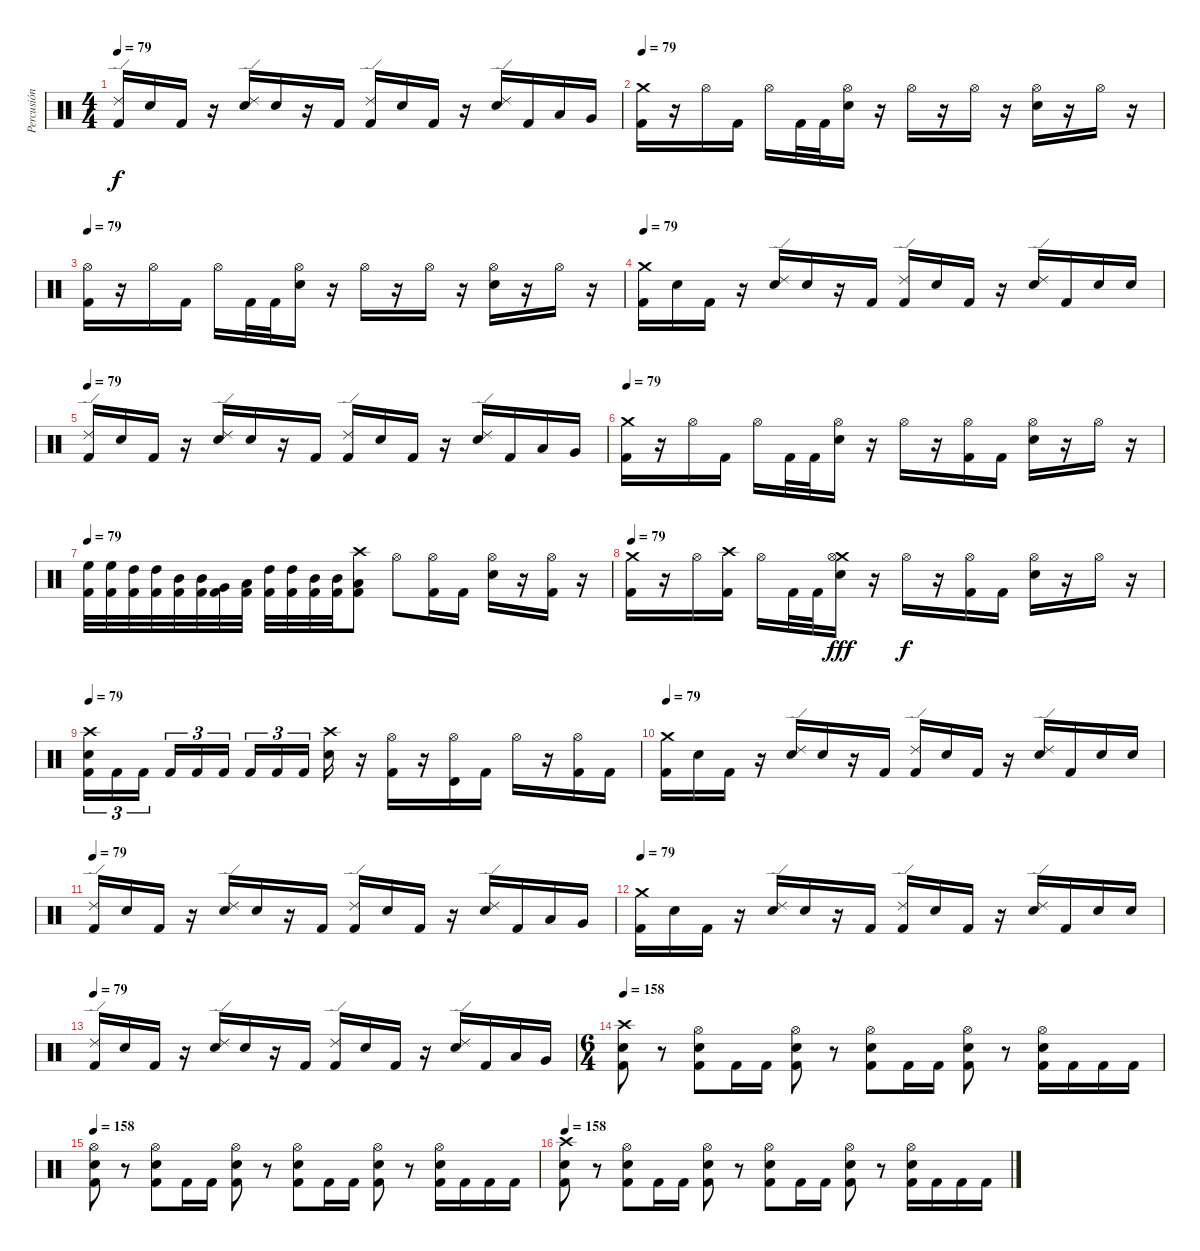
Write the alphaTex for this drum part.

\track ("Percusión" "Percusión") {instrument percussion}
\staff {score}
\articulation defaults
\ts (4 4)
\tempo 79
\clef neutral
\ks c
("Ride (edge) 2" "Kick (hit) 2").16{dy f} "Electric Snare (hit)".16 "Kick (hit) 2".16 r.16 ("Ride (edge) 2" "Electric Snare (hit)").16 "Electric Snare (hit)".16 r.16 "Kick (hit) 2".16 ("Ride (edge) 2" "Kick (hit) 2").16 "Electric Snare (hit)".16 "Kick (hit) 2".16 r.16 ("Ride (edge) 2" "Electric Snare (hit)").16 "Kick (hit) 2".16 "Low Tom (hit)".16 "Very Low Tom (hit)".16 |
\tempo 79
("Crash medium (hit)" "Kick (hit) 2").16 r.16 "Hi-Hat (open)".16 "Kick (hit) 2".16 "Hi-Hat (open)".16 "Kick (hit) 2".32 "Kick (hit) 2".32 ("Hi-Hat (open)" "Electric Snare (hit)").16 r.16 "Hi-Hat (open)".16 r.16 "Hi-Hat (open)".16 r.16 ("Hi-Hat (open)" "Electric Snare (hit)").16 r.16 "Hi-Hat (open)".16 r.16 |
\tempo 79
("Hi-Hat (open)" "Kick (hit) 2").16 r.16 "Hi-Hat (open)".16 "Kick (hit) 2".16 "Hi-Hat (open)".16 "Kick (hit) 2".32 "Kick (hit) 2".32 ("Hi-Hat (open)" "Electric Snare (hit)").16 r.16 "Hi-Hat (open)".16 r.16 "Hi-Hat (open)".16 r.16 ("Hi-Hat (open)" "Electric Snare (hit)").16 r.16 "Hi-Hat (open)".16 r.16 |
\tempo 79
("Crash medium (hit)" "Kick (hit) 2").16 "Electric Snare (hit)".16 "Kick (hit) 2".16 r.16 ("Ride (edge) 2" "Electric Snare (hit)").16 "Electric Snare (hit)".16 r.16 "Kick (hit) 2".16 ("Ride (edge) 2" "Kick (hit) 2").16 "Electric Snare (hit)".16 "Kick (hit) 2".16 r.16 ("Ride (edge) 2" "Electric Snare (hit)").16 "Kick (hit) 2".16 "Electric Snare (hit)".16 "Electric Snare (hit)".16 |
\tempo 79
("Ride (edge) 2" "Kick (hit) 2").16 "Electric Snare (hit)".16 "Kick (hit) 2".16 r.16 ("Ride (edge) 2" "Electric Snare (hit)").16 "Electric Snare (hit)".16 r.16 "Kick (hit) 2".16 ("Ride (edge) 2" "Kick (hit) 2").16 "Electric Snare (hit)".16 "Kick (hit) 2".16 r.16 ("Ride (edge) 2" "Electric Snare (hit)").16 "Kick (hit) 2".16 "Low Tom (hit)".16 "Very Low Tom (hit)".16 |
\tempo 79
("Crash medium (hit)" "Kick (hit) 2").16 r.16 "Hi-Hat (open)".16 "Kick (hit) 2".16 "Hi-Hat (open)".16 "Kick (hit) 2".32 "Kick (hit) 2".32 ("Hi-Hat (open)" "Electric Snare (hit)").16 r.16 "Hi-Hat (open)".16 r.16 ("Hi-Hat (open)" "Kick (hit) 2").16 "Kick (hit) 2".16 ("Hi-Hat (open)" "Electric Snare (hit)").16 r.16 "Hi-Hat (open)".16 r.16 |
\tempo 79
("High Floor Tom (hit)" "Kick (hit) 2").32 ("High Floor Tom (hit)" "Kick (hit) 2").32 ("High Tom (hit)" "Kick (hit) 2").32 ("High Tom (hit)" "Kick (hit) 2").32 ("Mid Tom (hit)" "Kick (hit) 2").32 ("Mid Tom (hit)" "Kick (hit) 2").32 ("Very Low Tom (hit)" "Kick (hit) 2").32 ("Low Tom (hit)" "Kick (hit) 2").32 ("High Tom (hit)" "Kick (hit) 2").32 ("High Tom (hit)" "Kick (hit) 2").32 ("Mid Tom (hit)" "Kick (hit) 2").32 ("Mid Tom (hit)" "Kick (hit) 2").32 ("Crash high (hit)" "Low Tom (hit)" "Kick (hit) 2").8 "Hi-Hat (open)".8 ("Hi-Hat (open)" "Kick (hit) 2").16 "Kick (hit) 2".16 ("Hi-Hat (open)" "Electric Snare (hit)").16 r.16 ("Hi-Hat (open)" "Kick (hit) 2").16 r.16 |
\tempo 79
("Crash medium (hit)" "Kick (hit) 2").16 r.16 "Hi-Hat (open)".16 ("Crash high (hit)" "Kick (hit) 2").16 "Hi-Hat (open)".16 "Kick (hit) 2".32 "Kick (hit) 2".32 ("Crash medium (hit)" "Hi-Hat (open)" "Electric Snare (hit)").16{dy fff} r.16 "Hi-Hat (open)".16{dy f} r.16 ("Hi-Hat (open)" "Kick (hit) 2").16 "Kick (hit) 2".16 ("Hi-Hat (open)" "Electric Snare (hit)").16 r.16 "Hi-Hat (open)".16 r.16 |
\tempo 79
("Crash high (hit)" "Electric Snare (hit)" "Kick (hit) 2").16{tu (3 2)} "Kick (hit) 2".16{tu (3 2)} "Kick (hit) 2".16{tu (3 2)} "Kick (hit) 2".16{tu (3 2)} "Kick (hit) 2".16{tu (3 2)} "Kick (hit) 2".16{tu (3 2)} "Kick (hit) 2".16{tu (3 2)} "Kick (hit) 2".16{tu (3 2)} "Kick (hit) 2".16{tu (3 2)} ("Crash high (hit)" "Electric Snare (hit)").16 r.16 ("Hi-Hat (open)" "Kick (hit) 2").16 r.16 ("Timbale high (hit)" "Hi-Hat (open)").16 "Kick (hit) 2".16 "Hi-Hat (open)".16 r.16 ("Hi-Hat (open)" "Kick (hit) 2").16 "Kick (hit) 2".16 |
\tempo 79
("Crash medium (hit)" "Kick (hit) 2").16 "Electric Snare (hit)".16 "Kick (hit) 2".16 r.16 ("Ride (edge) 2" "Electric Snare (hit)").16 "Electric Snare (hit)".16 r.16 "Kick (hit) 2".16 ("Ride (edge) 2" "Kick (hit) 2").16 "Electric Snare (hit)".16 "Kick (hit) 2".16 r.16 ("Ride (edge) 2" "Electric Snare (hit)").16 "Kick (hit) 2".16 "Electric Snare (hit)".16 "Electric Snare (hit)".16 |
\tempo 79
("Ride (edge) 2" "Kick (hit) 2").16 "Electric Snare (hit)".16 "Kick (hit) 2".16 r.16 ("Ride (edge) 2" "Electric Snare (hit)").16 "Electric Snare (hit)".16 r.16 "Kick (hit) 2".16 ("Ride (edge) 2" "Kick (hit) 2").16 "Electric Snare (hit)".16 "Kick (hit) 2".16 r.16 ("Ride (edge) 2" "Electric Snare (hit)").16 "Kick (hit) 2".16 "Low Tom (hit)".16 "Very Low Tom (hit)".16 |
\tempo 79
("Crash medium (hit)" "Kick (hit) 2").16 "Electric Snare (hit)".16 "Kick (hit) 2".16 r.16 ("Ride (edge) 2" "Electric Snare (hit)").16 "Electric Snare (hit)".16 r.16 "Kick (hit) 2".16 ("Ride (edge) 2" "Kick (hit) 2").16 "Electric Snare (hit)".16 "Kick (hit) 2".16 r.16 ("Ride (edge) 2" "Electric Snare (hit)").16 "Kick (hit) 2".16 "Electric Snare (hit)".16 "Electric Snare (hit)".16 |
\tempo 79
("Ride (edge) 2" "Kick (hit) 2").16 "Electric Snare (hit)".16 "Kick (hit) 2".16 r.16 ("Ride (edge) 2" "Electric Snare (hit)").16 "Electric Snare (hit)".16 r.16 "Kick (hit) 2".16 ("Ride (edge) 2" "Kick (hit) 2").16 "Electric Snare (hit)".16 "Kick (hit) 2".16 r.16 ("Ride (edge) 2" "Electric Snare (hit)").16 "Kick (hit) 2".16 "Low Tom (hit)".16 "Very Low Tom (hit)".16 |
\ts (6 4)
\tempo 158
("Crash high (hit)" "Electric Snare (hit)" "Kick (hit) 2").8 r.8 ("Hi-Hat (open)" "Electric Snare (hit)" "Kick (hit) 2").8 "Kick (hit) 2".16 "Kick (hit) 2".16 ("Hi-Hat (open)" "Electric Snare (hit)" "Kick (hit) 2").8 r.8 ("Hi-Hat (open)" "Electric Snare (hit)" "Kick (hit) 2").8 "Kick (hit) 2".16 "Kick (hit) 2".16 ("Hi-Hat (open)" "Electric Snare (hit)" "Kick (hit) 2").8 r.8 ("Hi-Hat (open)" "Electric Snare (hit)" "Kick (hit) 2").16 "Kick (hit) 2".16 "Kick (hit) 2".16 "Kick (hit) 2".16 |
\tempo 158
("Hi-Hat (open)" "Electric Snare (hit)" "Kick (hit) 2").8 r.8 ("Hi-Hat (open)" "Electric Snare (hit)" "Kick (hit) 2").8 "Kick (hit) 2".16 "Kick (hit) 2".16 ("Hi-Hat (open)" "Electric Snare (hit)" "Kick (hit) 2").8 r.8 ("Hi-Hat (open)" "Electric Snare (hit)" "Kick (hit) 2").8 "Kick (hit) 2".16 "Kick (hit) 2".16 ("Hi-Hat (open)" "Electric Snare (hit)" "Kick (hit) 2").8 r.8 ("Hi-Hat (open)" "Electric Snare (hit)" "Kick (hit) 2").16 "Kick (hit) 2".16 "Kick (hit) 2".16 "Kick (hit) 2".16 |
\tempo 158
("Crash high (hit)" "Electric Snare (hit)" "Kick (hit) 2").8 r.8 ("Hi-Hat (open)" "Electric Snare (hit)" "Kick (hit) 2").8 "Kick (hit) 2".16 "Kick (hit) 2".16 ("Hi-Hat (open)" "Electric Snare (hit)" "Kick (hit) 2").8 r.8 ("Hi-Hat (open)" "Electric Snare (hit)" "Kick (hit) 2").8 "Kick (hit) 2".16 "Kick (hit) 2".16 ("Hi-Hat (open)" "Electric Snare (hit)" "Kick (hit) 2").8 r.8 ("Hi-Hat (open)" "Electric Snare (hit)" "Kick (hit) 2").16 "Kick (hit) 2".16 "Kick (hit) 2".16 "Kick (hit) 2".16
